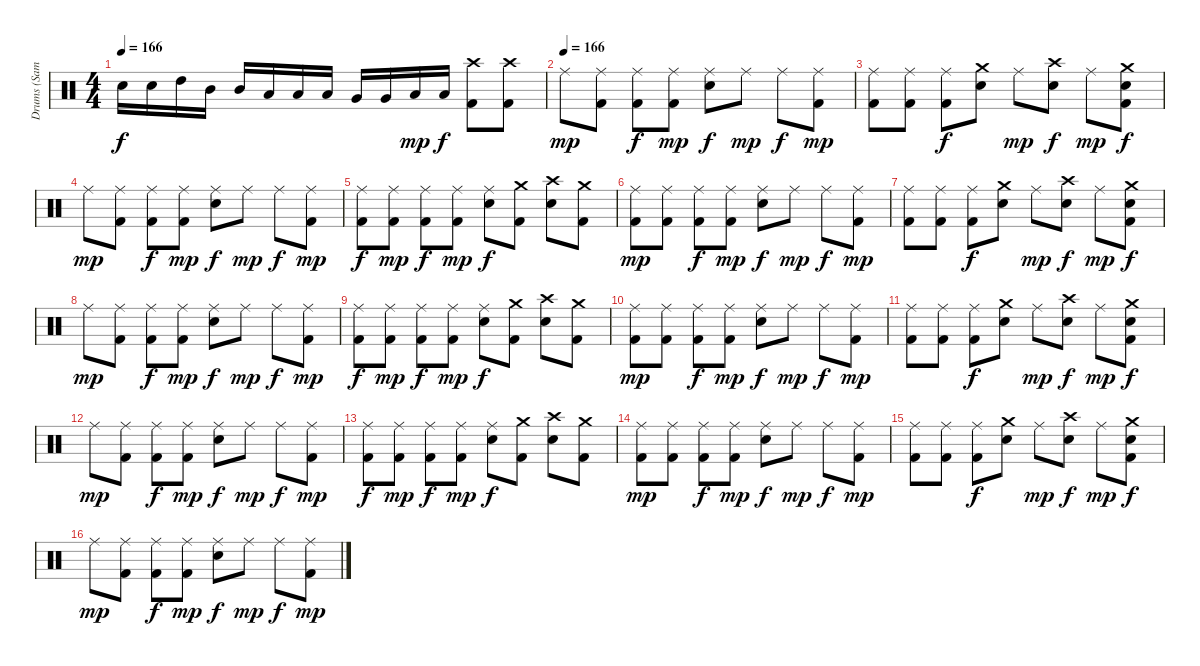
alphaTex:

\track ("Drums (Samuelson)" "Drums (Sam") {instrument percussion}
\staff
\articulation defaults
\ts (4 4)
\tempo 166
\clef neutral
\ks c "Electric Snare (hit)".16{dy f} "Electric Snare (hit)".16 "High Tom (hit)".16 "Mid Tom (hit)".16 "Mid Tom (hit)".16 "Low Tom (hit)".16 "Low Tom (hit)".16 "Low Tom (hit)".16 "Very Low Tom (hit)".16 "Very Low Tom (hit)".16 "Low Floor Tom (hit)".16{dy mp} "Low Floor Tom (hit)".16{dy f}
("Crash high (hit)" "Kick (hit) 2").8 ("Crash high (hit)" "Kick (hit) 2").8 |
\tempo (166)
"Ride (middle)".8{dy mp} ("Ride (middle)" "Kick (hit) 2").8 ("Ride (middle)" "Kick (hit) 2").8{dy f} ("Ride (middle)" "Kick (hit) 2").8{dy mp} ("Ride (middle)" "Electric Snare (hit)").8{dy f} "Ride (middle)".8{dy mp} "Ride (middle)".8{dy f} ("Ride (middle)" "Kick (hit) 2").8{dy mp} |
("Ride (middle)" "Kick (hit) 2").8 ("Ride (middle)" "Kick (hit) 2").8 ("Ride (middle)" "Kick (hit) 2").8{dy f} ("Crash medium (hit)" "Electric Snare (hit)").8 "Ride (middle)".8{dy mp} ("Crash high (hit)" "Electric Snare (hit)").8{dy f} "Ride (middle)".8{dy mp} ("Crash medium (hit)" "Electric Snare (hit)" "Kick (hit) 2").8{dy f} |
"Ride (middle)".8{dy mp} ("Ride (middle)" "Kick (hit) 2").8 ("Ride (middle)" "Kick (hit) 2").8{dy f} ("Ride (middle)" "Kick (hit) 2").8{dy mp} ("Ride (middle)" "Electric Snare (hit)").8{dy f} "Ride (middle)".8{dy mp} "Ride (middle)".8{dy f} ("Ride (middle)" "Kick (hit) 2").8{dy mp} |
("Ride (middle)" "Kick (hit) 2").8{dy f} ("Ride (middle)" "Kick (hit) 2").8{dy mp} ("Ride (middle)" "Kick (hit) 2").8{dy f} ("Ride (middle)" "Kick (hit) 2").8{dy mp} ("Ride (middle)" "Electric Snare (hit)").8{dy f} ("Crash medium (hit)" "Kick (hit) 2").8 ("Crash high (hit)" "Electric Snare (hit)").8 ("Crash medium (hit)" "Kick (hit) 2").8 |
("Ride (middle)" "Kick (hit) 2").8{dy mp} ("Ride (middle)" "Kick (hit) 2").8 ("Ride (middle)" "Kick (hit) 2").8{dy f} ("Ride (middle)" "Kick (hit) 2").8{dy mp} ("Ride (middle)" "Electric Snare (hit)").8{dy f} "Ride (middle)".8{dy mp} "Ride (middle)".8{dy f} ("Ride (middle)" "Kick (hit) 2").8{dy mp} |
("Ride (middle)" "Kick (hit) 2").8 ("Ride (middle)" "Kick (hit) 2").8 ("Ride (middle)" "Kick (hit) 2").8{dy f} ("Crash medium (hit)" "Electric Snare (hit)").8 "Ride (middle)".8{dy mp} ("Crash high (hit)" "Electric Snare (hit)").8{dy f} "Ride (middle)".8{dy mp} ("Crash medium (hit)" "Electric Snare (hit)" "Kick (hit) 2").8{dy f} |
"Ride (middle)".8{dy mp} ("Ride (middle)" "Kick (hit) 2").8 ("Ride (middle)" "Kick (hit) 2").8{dy f} ("Ride (middle)" "Kick (hit) 2").8{dy mp} ("Ride (middle)" "Electric Snare (hit)").8{dy f} "Ride (middle)".8{dy mp} "Ride (middle)".8{dy f} ("Ride (middle)" "Kick (hit) 2").8{dy mp} |
("Ride (middle)" "Kick (hit) 2").8{dy f} ("Ride (middle)" "Kick (hit) 2").8{dy mp} ("Ride (middle)" "Kick (hit) 2").8{dy f} ("Ride (middle)" "Kick (hit) 2").8{dy mp} ("Ride (middle)" "Electric Snare (hit)").8{dy f} ("Crash medium (hit)" "Kick (hit) 2").8 ("Crash high (hit)" "Electric Snare (hit)").8 ("Crash medium (hit)" "Kick (hit) 2").8 |
("Ride (middle)" "Kick (hit) 2").8{dy mp} ("Ride (middle)" "Kick (hit) 2").8 ("Ride (middle)" "Kick (hit) 2").8{dy f} ("Ride (middle)" "Kick (hit) 2").8{dy mp} ("Ride (middle)" "Electric Snare (hit)").8{dy f} "Ride (middle)".8{dy mp} "Ride (middle)".8{dy f} ("Ride (middle)" "Kick (hit) 2").8{dy mp} |
("Ride (middle)" "Kick (hit) 2").8 ("Ride (middle)" "Kick (hit) 2").8 ("Ride (middle)" "Kick (hit) 2").8{dy f} ("Crash medium (hit)" "Electric Snare (hit)").8 "Ride (middle)".8{dy mp} ("Crash high (hit)" "Electric Snare (hit)").8{dy f} "Ride (middle)".8{dy mp} ("Crash medium (hit)" "Electric Snare (hit)" "Kick (hit) 2").8{dy f} |
"Ride (middle)".8{dy mp} ("Ride (middle)" "Kick (hit) 2").8 ("Ride (middle)" "Kick (hit) 2").8{dy f} ("Ride (middle)" "Kick (hit) 2").8{dy mp} ("Ride (middle)" "Electric Snare (hit)").8{dy f} "Ride (middle)".8{dy mp} "Ride (middle)".8{dy f} ("Ride (middle)" "Kick (hit) 2").8{dy mp} |
("Ride (middle)" "Kick (hit) 2").8{dy f} ("Ride (middle)" "Kick (hit) 2").8{dy mp} ("Ride (middle)" "Kick (hit) 2").8{dy f} ("Ride (middle)" "Kick (hit) 2").8{dy mp} ("Ride (middle)" "Electric Snare (hit)").8{dy f} ("Crash medium (hit)" "Kick (hit) 2").8 ("Crash high (hit)" "Electric Snare (hit)").8 ("Crash medium (hit)" "Kick (hit) 2").8 |
("Ride (middle)" "Kick (hit) 2").8{dy mp} ("Ride (middle)" "Kick (hit) 2").8 ("Ride (middle)" "Kick (hit) 2").8{dy f} ("Ride (middle)" "Kick (hit) 2").8{dy mp} ("Ride (middle)" "Electric Snare (hit)").8{dy f} "Ride (middle)".8{dy mp} "Ride (middle)".8{dy f} ("Ride (middle)" "Kick (hit) 2").8{dy mp} |
("Ride (middle)" "Kick (hit) 2").8 ("Ride (middle)" "Kick (hit) 2").8 ("Ride (middle)" "Kick (hit) 2").8{dy f} ("Crash medium (hit)" "Electric Snare (hit)").8 "Ride (middle)".8{dy mp} ("Crash high (hit)" "Electric Snare (hit)").8{dy f} "Ride (middle)".8{dy mp} ("Crash medium (hit)" "Electric Snare (hit)" "Kick (hit) 2").8{dy f} |
"Ride (middle)".8{dy mp} ("Ride (middle)" "Kick (hit) 2").8 ("Ride (middle)" "Kick (hit) 2").8{dy f} ("Ride (middle)" "Kick (hit) 2").8{dy mp} ("Ride (middle)" "Electric Snare (hit)").8{dy f} "Ride (middle)".8{dy mp} "Ride (middle)".8{dy f} ("Ride (middle)" "Kick (hit) 2").8{dy mp}
